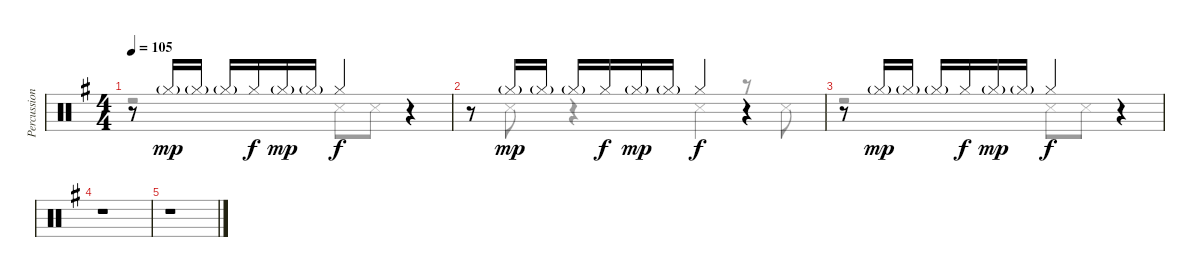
\track ("Percussion" "Percussion") {instrument percussion}
\staff {score}
\articulation defaults
\voice
\ts (4 4)
\tempo 105
\clef neutral
\ks g
r.8{dy f} "Hi-Hat (closed)"{g}.16{dy mp} "Hi-Hat (closed)"{g}.16 "Hi-Hat (closed)"{g}.16 "Hi-Hat (closed)".16{dy f} "Hi-Hat (closed)"{g}.16{dy mp} "Hi-Hat (closed)"{g}.16 "Hi-Hat (closed)".4{dy f} r.4 |
r.8 "Hi-Hat (closed)"{g}.16{dy mp} "Hi-Hat (closed)"{g}.16 "Hi-Hat (closed)"{g}.16 "Hi-Hat (closed)".16{dy f} "Hi-Hat (closed)"{g}.16{dy mp} "Hi-Hat (closed)"{g}.16 "Hi-Hat (closed)".4{dy f} r.4 |
r.8 "Hi-Hat (closed)"{g}.16{dy mp} "Hi-Hat (closed)"{g}.16 "Hi-Hat (closed)"{g}.16 "Hi-Hat (closed)".16{dy f} "Hi-Hat (closed)"{g}.16{dy mp} "Hi-Hat (closed)"{g}.16 "Hi-Hat (closed)".4{dy f} r.4 |
r.1 |
r.1
\voice
\clef neutral
\ottava regular
\simile none
\ks g
r.2{dy f} "Snare (side stick) 3".8 "Snare (side stick) 3".8 r.4 |
r.8 "Snare (side stick) 3".8 r.4 "Snare (side stick) 3".4 r.8 "Snare (side stick) 3".8 |
r.2 "Snare (side stick) 3".8 "Snare (side stick) 3".8 r.4 |
r.1 |
r.1
